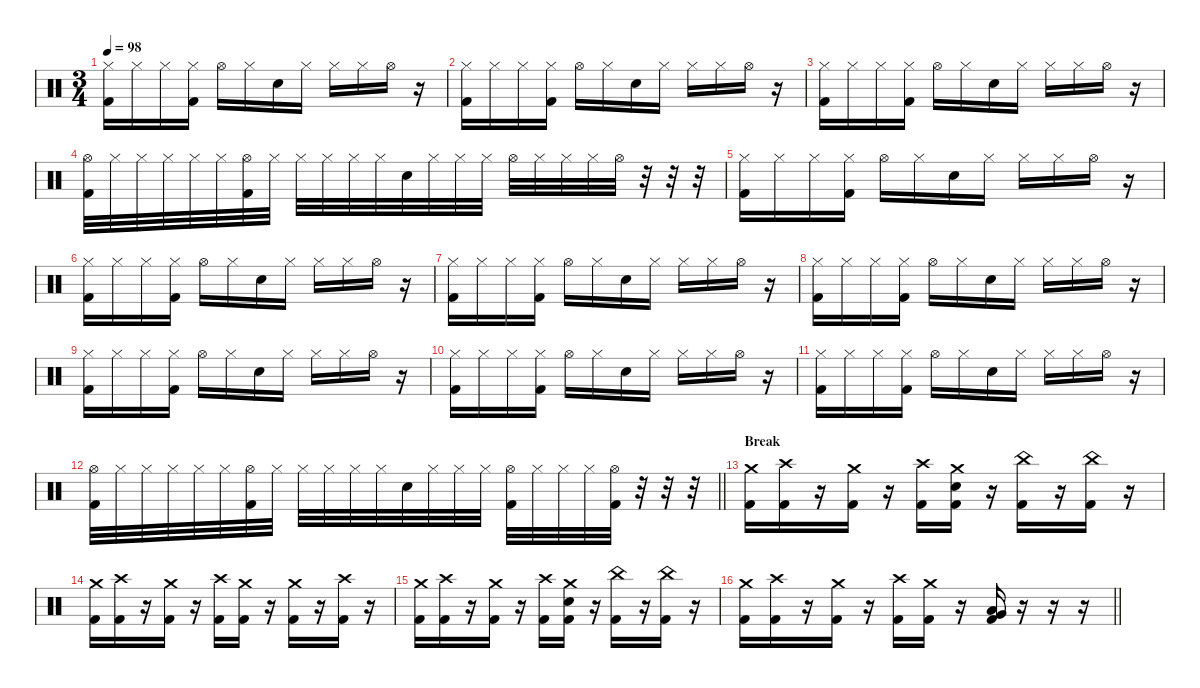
\defaultSystemsLayout 4
\hideDynamics
\bracketExtendMode nobrackets
\singleTrackTrackNamePolicy hidden
\multiTrackTrackNamePolicy hidden
\firstSystemTrackNameMode fullname
\firstSystemTrackNameOrientation horizontal
\otherSystemsTrackNameOrientation horizontal
\track ("Drums" "drm.") {instrument percussion}
\staff {score}
\articulation defaults
\ts (3 4)
\tempo 98
\clef neutral
\ks c
("Hi-Hat (closed)" "Kick (hit) 2").16{dy f beam Down} "Hi-Hat (closed)".16{beam Down} "Hi-Hat (closed)".16{beam Down} ("Hi-Hat (closed)" "Kick (hit) 2").16{beam Down} "Hi-Hat (open)".16{beam Down} "Hi-Hat (closed)".16{beam Down} "Snare (hit) 2".16{beam Down} "Hi-Hat (closed)".16{beam Down} "Hi-Hat (closed)".16{beam Down} "Hi-Hat (closed)".16{beam Down} "Hi-Hat (open)".16{beam Down} r.16{beam Down} |
("Hi-Hat (closed)" "Kick (hit) 2").16{beam Down} "Hi-Hat (closed)".16{beam Down} "Hi-Hat (closed)".16{beam Down} ("Hi-Hat (closed)" "Kick (hit) 2").16{beam Down} "Hi-Hat (open)".16{beam Down} "Hi-Hat (closed)".16{beam Down} "Snare (hit) 2".16{beam Down} "Hi-Hat (closed)".16{beam Down} "Hi-Hat (closed)".16{beam Down} "Hi-Hat (closed)".16{beam Down} "Hi-Hat (open)".16{beam Down} r.16{beam Down} |
("Hi-Hat (closed)" "Kick (hit) 2").16{beam Down} "Hi-Hat (closed)".16{beam Down} "Hi-Hat (closed)".16{beam Down} ("Hi-Hat (closed)" "Kick (hit) 2").16{beam Down} "Hi-Hat (open)".16{beam Down} "Hi-Hat (closed)".16{beam Down} "Snare (hit) 2".16{beam Down} "Hi-Hat (closed)".16{beam Down} "Hi-Hat (closed)".16{beam Down} "Hi-Hat (closed)".16{beam Down} "Hi-Hat (open)".16{beam Down} r.16{beam Down} |
("Hi-Hat (open)" "Kick (hit) 2").32{beam Down} "Hi-Hat (closed)".32{beam Down} "Hi-Hat (closed)".32{beam Down} "Hi-Hat (closed)".32{beam Down} "Hi-Hat (closed)".32{beam Down} "Hi-Hat (closed)".32{beam Down} ("Hi-Hat (open)" "Kick (hit) 2").32{beam Down} "Hi-Hat (closed)".32{beam Down} "Hi-Hat (closed)".32{beam Down} "Hi-Hat (closed)".32{beam Down} "Hi-Hat (closed)".32{beam Down} "Hi-Hat (closed)".32{beam Down} "Snare (hit) 2".32{beam Down} "Hi-Hat (closed)".32{beam Down} "Hi-Hat (closed)".32{beam Down} "Hi-Hat (closed)".32{beam Down} "Hi-Hat (open)".32{beam Down} "Hi-Hat (closed)".32{beam Down} "Hi-Hat (closed)".32{beam Down} "Hi-Hat (closed)".32{beam Down} "Hi-Hat (open)".32{beam Down} r.32{beam Down} r.32{beam Down} r.32{beam Down} |
("Hi-Hat (closed)" "Kick (hit) 2").16{beam Down} "Hi-Hat (closed)".16{beam Down} "Hi-Hat (closed)".16{beam Down} ("Hi-Hat (closed)" "Kick (hit) 2").16{beam Down} "Hi-Hat (open)".16{beam Down} "Hi-Hat (closed)".16{beam Down} "Snare (hit) 2".16{beam Down} "Hi-Hat (closed)".16{beam Down} "Hi-Hat (closed)".16{beam Down} "Hi-Hat (closed)".16{beam Down} "Hi-Hat (open)".16{beam Down} r.16{beam Down} |
("Hi-Hat (closed)" "Kick (hit) 2").16{beam Down} "Hi-Hat (closed)".16{beam Down} "Hi-Hat (closed)".16{beam Down} ("Hi-Hat (closed)" "Kick (hit) 2").16{beam Down} "Hi-Hat (open)".16{beam Down} "Hi-Hat (closed)".16{beam Down} "Snare (hit) 2".16{beam Down} "Hi-Hat (closed)".16{beam Down} "Hi-Hat (closed)".16{beam Down} "Hi-Hat (closed)".16{beam Down} "Hi-Hat (open)".16{beam Down} r.16{beam Down} |
("Hi-Hat (closed)" "Kick (hit) 2").16{beam Down} "Hi-Hat (closed)".16{beam Down} "Hi-Hat (closed)".16{beam Down} ("Hi-Hat (closed)" "Kick (hit) 2").16{beam Down} "Hi-Hat (open)".16{beam Down} "Hi-Hat (closed)".16{beam Down} "Snare (hit) 2".16{beam Down} "Hi-Hat (closed)".16{beam Down} "Hi-Hat (closed)".16{beam Down} "Hi-Hat (closed)".16{beam Down} "Hi-Hat (open)".16{beam Down} r.16{beam Down} |
("Hi-Hat (closed)" "Kick (hit) 2").16{beam Down} "Hi-Hat (closed)".16{beam Down} "Hi-Hat (closed)".16{beam Down} ("Hi-Hat (closed)" "Kick (hit) 2").16{beam Down} "Hi-Hat (open)".16{beam Down} "Hi-Hat (closed)".16{beam Down} "Snare (hit) 2".16{beam Down} "Hi-Hat (closed)".16{beam Down} "Hi-Hat (closed)".16{beam Down} "Hi-Hat (closed)".16{beam Down} "Hi-Hat (open)".16{beam Down} r.16{beam Down} |
("Hi-Hat (closed)" "Kick (hit) 2").16{beam Down} "Hi-Hat (closed)".16{beam Down} "Hi-Hat (closed)".16{beam Down} ("Hi-Hat (closed)" "Kick (hit) 2").16{beam Down} "Hi-Hat (open)".16{beam Down} "Hi-Hat (closed)".16{beam Down} "Snare (hit) 2".16{beam Down} "Hi-Hat (closed)".16{beam Down} "Hi-Hat (closed)".16{beam Down} "Hi-Hat (closed)".16{beam Down} "Hi-Hat (open)".16{beam Down} r.16{beam Down} |
("Hi-Hat (closed)" "Kick (hit) 2").16{beam Down} "Hi-Hat (closed)".16{beam Down} "Hi-Hat (closed)".16{beam Down} ("Hi-Hat (closed)" "Kick (hit) 2").16{beam Down} "Hi-Hat (open)".16{beam Down} "Hi-Hat (closed)".16{beam Down} "Snare (hit) 2".16{beam Down} "Hi-Hat (closed)".16{beam Down} "Hi-Hat (closed)".16{beam Down} "Hi-Hat (closed)".16{beam Down} "Hi-Hat (open)".16{beam Down} r.16{beam Down} |
("Hi-Hat (closed)" "Kick (hit) 2").16{beam Down} "Hi-Hat (closed)".16{beam Down} "Hi-Hat (closed)".16{beam Down} ("Hi-Hat (closed)" "Kick (hit) 2").16{beam Down} "Hi-Hat (open)".16{beam Down} "Hi-Hat (closed)".16{beam Down} "Snare (hit) 2".16{beam Down} "Hi-Hat (closed)".16{beam Down} "Hi-Hat (closed)".16{beam Down} "Hi-Hat (closed)".16{beam Down} "Hi-Hat (open)".16{beam Down} r.16{beam Down} |
\barLineRight lightlight
("Hi-Hat (open)" "Kick (hit) 2").32{beam Down} "Hi-Hat (closed)".32{beam Down} "Hi-Hat (closed)".32{beam Down} "Hi-Hat (closed)".32{beam Down} "Hi-Hat (closed)".32{beam Down} "Hi-Hat (closed)".32{beam Down} ("Hi-Hat (open)" "Kick (hit) 2").32{beam Down} "Hi-Hat (closed)".32{beam Down} "Hi-Hat (closed)".32{beam Down} "Hi-Hat (closed)".32{beam Down} "Hi-Hat (closed)".32{beam Down} "Hi-Hat (closed)".32{beam Down} "Snare (hit) 2".32{beam Down} "Hi-Hat (closed)".32{beam Down} "Hi-Hat (closed)".32{beam Down} "Hi-Hat (closed)".32{beam Down} ("Hi-Hat (open)" "Kick (hit) 2").32{beam Down} "Hi-Hat (closed)".32{beam Down} "Hi-Hat (closed)".32{beam Down} "Hi-Hat (closed)".32{beam Down} ("Hi-Hat (open)" "Kick (hit) 2").32{beam Down} r.32{beam Down} r.32{beam Down} r.32{beam Down} |
\section ("" "Break")
("Crash medium (hit)" "Kick (hit) 2").16{beam Down} ("Crash high (hit)" "Kick (hit) 2").16{beam Down} r.16{beam Down} ("Crash medium (hit)" "Kick (hit) 2").16{beam Down} r.16{beam Down} ("Crash high (hit)" "Kick (hit) 2").16{beam Down} ("Crash medium (hit)" "Snare (hit) 2" "Kick (hit) 2").16{beam Down} r.16{beam Down} ("China (hit)" "Kick (hit) 2").16{beam Down} r.16{beam Down} ("China (hit)" "Kick (hit) 2").16{beam Down} r.16{beam Down} |
("Crash medium (hit)" "Kick (hit) 2").16{beam Down} ("Crash high (hit)" "Kick (hit) 2").16{beam Down} r.16{beam Down} ("Crash medium (hit)" "Kick (hit) 2").16{beam Down} r.16{beam Down} ("Crash high (hit)" "Kick (hit) 2").16{beam Down} ("Crash medium (hit)" "Kick (hit) 2").16{beam Down} r.16{beam Down} ("Crash medium (hit)" "Kick (hit) 2").16{beam Down} r.16{beam Down} ("Crash high (hit)" "Kick (hit) 2").16{beam Down} r.16{beam Down} |
("Crash medium (hit)" "Kick (hit) 2").16{beam Down} ("Crash high (hit)" "Kick (hit) 2").16{beam Down} r.16{beam Down} ("Crash medium (hit)" "Kick (hit) 2").16{beam Down} r.16{beam Down} ("Crash high (hit)" "Kick (hit) 2").16{beam Down} ("Crash medium (hit)" "Snare (hit) 2" "Kick (hit) 2").16{beam Down} r.16{beam Down} ("China (hit)" "Kick (hit) 2").16{beam Down} r.16{beam Down} ("China (hit)" "Kick (hit) 2").16{beam Down} r.16{beam Down} |
\barLineRight lightlight
("Crash medium (hit)" "Kick (hit) 2").16{beam Down} ("Crash high (hit)" "Kick (hit) 2").16{beam Down} r.16{beam Down} ("Crash medium (hit)" "Kick (hit) 2").16{beam Down} r.16{beam Down} ("Crash high (hit)" "Kick (hit) 2").16{beam Down} ("Crash medium (hit)" "Kick (hit) 2").16{beam Down} r.16{beam Down} ("Very Low Tom (hit)" "Low Tom (hit)" "Kick (hit) 2").16{beam Up} r.16{beam Up} r.16{beam Up} r.16{beam Up}
